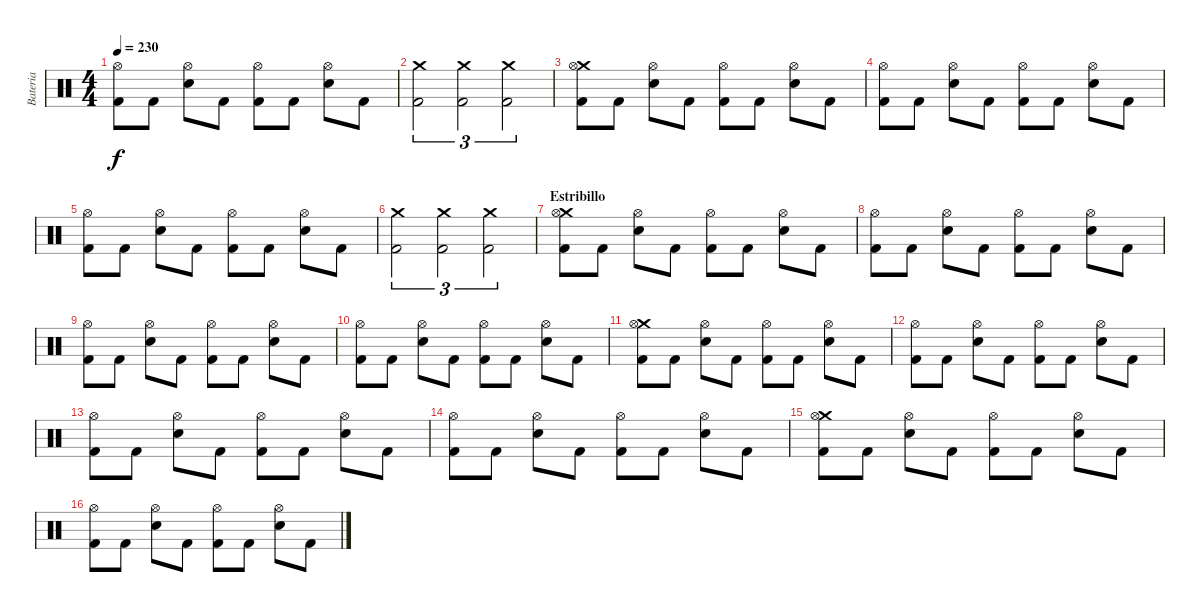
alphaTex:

\track ("Bateria" "Bateria") {instrument percussion}
\staff {score}
\articulation defaults
\ts (4 4)
\tempo 230
\clef neutral
\ks c
("Hi-Hat (open)" "Kick (hit) 2").8{dy f} "Kick (hit) 2".8 ("Hi-Hat (open)" "Snare (hit) 2").8 "Kick (hit) 2".8 ("Hi-Hat (open)" "Kick (hit) 2").8 "Kick (hit) 2".8 ("Hi-Hat (open)" "Snare (hit) 2").8 "Kick (hit) 2".8 |
("Crash medium (hit)" "Kick (hit) 2").2{tu (3 2)} ("Crash medium (hit)" "Kick (hit) 2").2{tu (3 2)} ("Crash medium (hit)" "Kick (hit) 2").2{tu (3 2)} |
("Crash medium (hit)" "Hi-Hat (open)" "Kick (hit) 2").8 "Kick (hit) 2".8 ("Hi-Hat (open)" "Snare (hit) 2").8 "Kick (hit) 2".8 ("Hi-Hat (open)" "Kick (hit) 2").8 "Kick (hit) 2".8 ("Hi-Hat (open)" "Snare (hit) 2").8 "Kick (hit) 2".8 |
("Hi-Hat (open)" "Kick (hit) 2").8 "Kick (hit) 2".8 ("Hi-Hat (open)" "Snare (hit) 2").8 "Kick (hit) 2".8 ("Hi-Hat (open)" "Kick (hit) 2").8 "Kick (hit) 2".8 ("Hi-Hat (open)" "Snare (hit) 2").8 "Kick (hit) 2".8 |
("Hi-Hat (open)" "Kick (hit) 2").8 "Kick (hit) 2".8 ("Hi-Hat (open)" "Snare (hit) 2").8 "Kick (hit) 2".8 ("Hi-Hat (open)" "Kick (hit) 2").8 "Kick (hit) 2".8 ("Hi-Hat (open)" "Snare (hit) 2").8 "Kick (hit) 2".8 |
("Crash medium (hit)" "Kick (hit) 2").2{tu (3 2)} ("Crash medium (hit)" "Kick (hit) 2").2{tu (3 2)} ("Crash medium (hit)" "Kick (hit) 2").2{tu (3 2)} |
\section ("" "Estribillo")
("Crash medium (hit)" "Hi-Hat (open)" "Kick (hit) 2").8 "Kick (hit) 2".8 ("Hi-Hat (open)" "Snare (hit) 2").8 "Kick (hit) 2".8 ("Hi-Hat (open)" "Kick (hit) 2").8 "Kick (hit) 2".8 ("Hi-Hat (open)" "Snare (hit) 2").8 "Kick (hit) 2".8 |
("Hi-Hat (open)" "Kick (hit) 2").8 "Kick (hit) 2".8 ("Hi-Hat (open)" "Snare (hit) 2").8 "Kick (hit) 2".8 ("Hi-Hat (open)" "Kick (hit) 2").8 "Kick (hit) 2".8 ("Hi-Hat (open)" "Snare (hit) 2").8 "Kick (hit) 2".8 |
("Hi-Hat (open)" "Kick (hit) 2").8 "Kick (hit) 2".8 ("Hi-Hat (open)" "Snare (hit) 2").8 "Kick (hit) 2".8 ("Hi-Hat (open)" "Kick (hit) 2").8 "Kick (hit) 2".8 ("Hi-Hat (open)" "Snare (hit) 2").8 "Kick (hit) 2".8 |
("Hi-Hat (open)" "Kick (hit) 2").8 "Kick (hit) 2".8 ("Hi-Hat (open)" "Snare (hit) 2").8 "Kick (hit) 2".8 ("Hi-Hat (open)" "Kick (hit) 2").8 "Kick (hit) 2".8 ("Hi-Hat (open)" "Snare (hit) 2").8 "Kick (hit) 2".8 |
("Crash medium (hit)" "Hi-Hat (open)" "Kick (hit) 2").8 "Kick (hit) 2".8 ("Hi-Hat (open)" "Snare (hit) 2").8 "Kick (hit) 2".8 ("Hi-Hat (open)" "Kick (hit) 2").8 "Kick (hit) 2".8 ("Hi-Hat (open)" "Snare (hit) 2").8 "Kick (hit) 2".8 |
("Hi-Hat (open)" "Kick (hit) 2").8 "Kick (hit) 2".8 ("Hi-Hat (open)" "Snare (hit) 2").8 "Kick (hit) 2".8 ("Hi-Hat (open)" "Kick (hit) 2").8 "Kick (hit) 2".8 ("Hi-Hat (open)" "Snare (hit) 2").8 "Kick (hit) 2".8 |
("Hi-Hat (open)" "Kick (hit) 2").8 "Kick (hit) 2".8 ("Hi-Hat (open)" "Snare (hit) 2").8 "Kick (hit) 2".8 ("Hi-Hat (open)" "Kick (hit) 2").8 "Kick (hit) 2".8 ("Hi-Hat (open)" "Snare (hit) 2").8 "Kick (hit) 2".8 |
("Hi-Hat (open)" "Kick (hit) 2").8 "Kick (hit) 2".8 ("Hi-Hat (open)" "Snare (hit) 2").8 "Kick (hit) 2".8 ("Hi-Hat (open)" "Kick (hit) 2").8 "Kick (hit) 2".8 ("Hi-Hat (open)" "Snare (hit) 2").8 "Kick (hit) 2".8 |
("Crash medium (hit)" "Hi-Hat (open)" "Kick (hit) 2").8 "Kick (hit) 2".8 ("Hi-Hat (open)" "Snare (hit) 2").8 "Kick (hit) 2".8 ("Hi-Hat (open)" "Kick (hit) 2").8 "Kick (hit) 2".8 ("Hi-Hat (open)" "Snare (hit) 2").8 "Kick (hit) 2".8 |
("Hi-Hat (open)" "Kick (hit) 2").8 "Kick (hit) 2".8 ("Hi-Hat (open)" "Snare (hit) 2").8 "Kick (hit) 2".8 ("Hi-Hat (open)" "Kick (hit) 2").8 "Kick (hit) 2".8 ("Hi-Hat (open)" "Snare (hit) 2").8 "Kick (hit) 2".8
